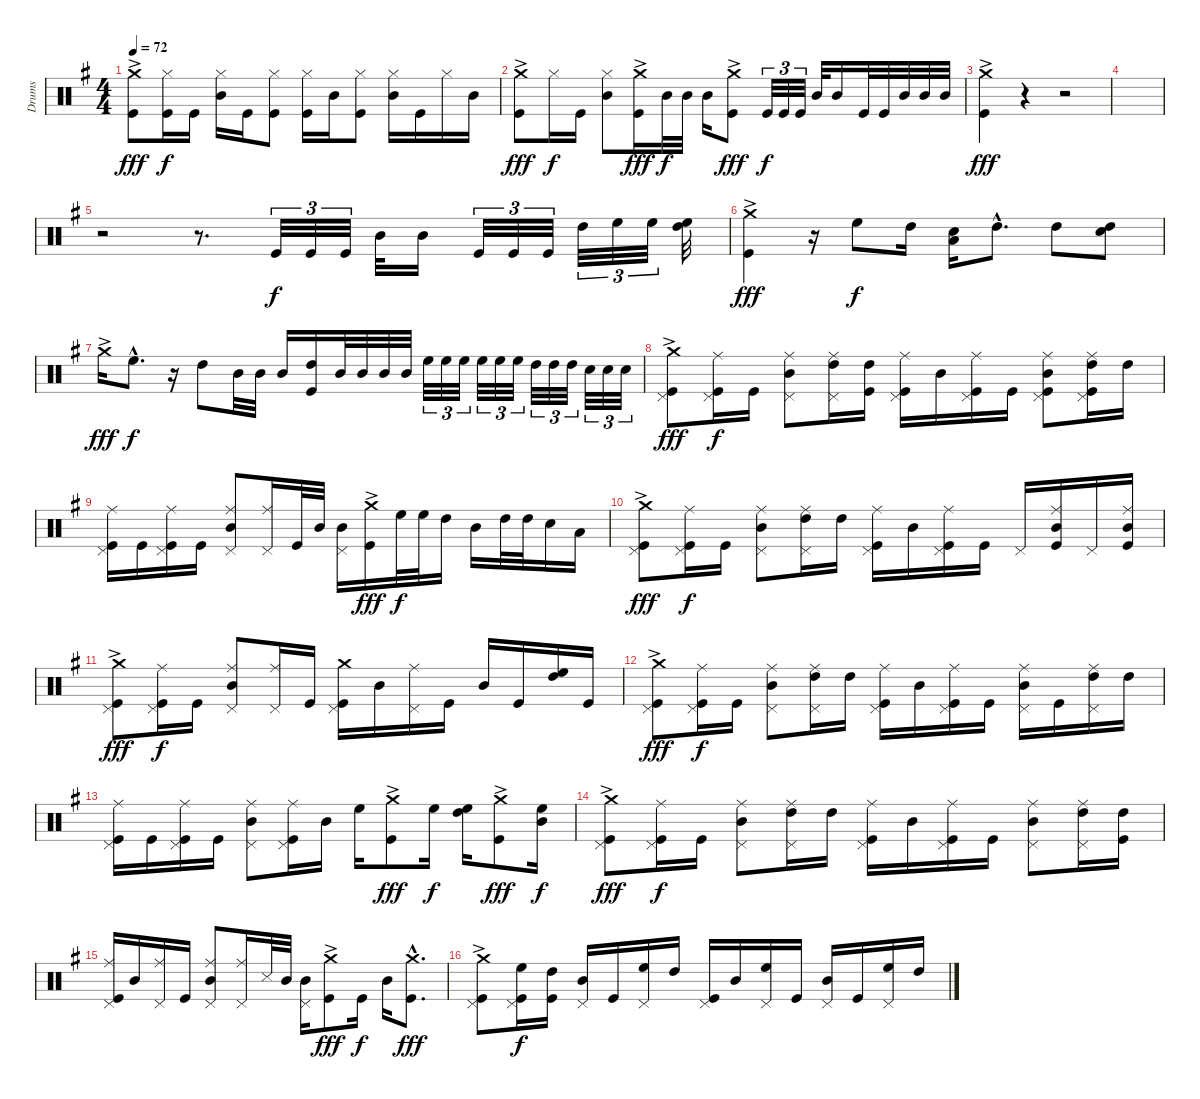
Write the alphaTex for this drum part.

\track ("Drums" "Drums") {instrument percussion}
\staff {score}
\articulation defaults
\ts (4 4)
\tempo 72
\clef neutral
\ks g
("Crash medium (hit)"{ac} "Kick (hit)").8{dy fff} ("Hi-Hat (closed)" "Kick (hit)").16{dy f} "Kick (hit)".16 ("Hi-Hat (closed)" "Mid Tom (hit)").16 "Kick (hit)".16 ("Hi-Hat (closed)" "Kick (hit)").8 ("Hi-Hat (closed)" "Kick (hit)").16 "Mid Tom (hit)".16 ("Hi-Hat (closed)" "Kick (hit)").8 ("Hi-Hat (closed)" "Mid Tom (hit)").16 "Kick (hit)".16 "Hi-Hat (closed)".16 "Mid Tom (hit)".16 |
("Crash medium (hit)"{ac} "Kick (hit)").8{dy fff} "Hi-Hat (closed)".16{dy f} "Kick (hit)".16 ("Hi-Hat (closed)" "Mid Tom (hit)").8 ("Crash medium (hit)"{ac} "Kick (hit)").16{dy fff} "Mid Tom (hit)".32{dy f} "Mid Tom (hit)".32 "Mid Tom (hit)".16 ("Crash medium (hit)"{ac} "Kick (hit)").8{dy fff} "Kick (hit)".32{tu (3 2) dy f} "Kick (hit)".32{tu (3 2)} "Kick (hit)".32{tu (3 2)} "Mid Tom (hit)".32 "Mid Tom (hit)".16 "Kick (hit)".32 "Kick (hit)".32 "Mid Tom (hit)".32 "Mid Tom (hit)".32 "Mid Tom (hit)".32 |
("Crash medium (hit)"{ac} "Kick (hit)").4{dy fff} r.4 r.2 |
|
r.2 r.8{d} "Kick (hit)".32{tu (3 2) dy f} "Kick (hit)".32{tu (3 2)} "Kick (hit)".32{tu (3 2)} "Mid Tom (hit)".32 "Mid Tom (hit)".16 "Kick (hit)".32{tu (3 2)} "Kick (hit)".32{tu (3 2)} "Kick (hit)".32{tu (3 2)} "High Tom (hit)".32{tu (3 2)} "High Floor Tom (hit)".32{tu (3 2)} "High Floor Tom (hit)".32{tu (3 2)} ("High Floor Tom (hit)" "High Tom (hit)").32 |
("Crash medium (hit)"{ac} "Kick (hit)").4{dy fff} r.16 "High Floor Tom (hit)".8{dy f} "High Tom (hit)".16 ("Low Tom (hit)" "Electric Snare (hit)").16 "High Tom (hit)"{hac}.8{d} "High Tom (hit)".8 ("High Tom (hit)" "Electric Snare (hit)").8 |
"Crash medium (hit)"{ac}.16{dy fff} "High Floor Tom (hit)"{hac}.8{d dy f} r.16 "High Tom (hit)".8 "Mid Tom (hit)".32 "Mid Tom (hit)".32 "Mid Tom (hit)".16 ("High Tom (hit)" "Kick (hit)").16 "Mid Tom (hit)".32 "Mid Tom (hit)".32 "Mid Tom (hit)".32 "Mid Tom (hit)".32 "High Floor Tom (hit)".32{tu (3 2)} "High Floor Tom (hit)".32{tu (3 2)} "High Floor Tom (hit)".32{tu (3 2)} "High Floor Tom (hit)".32{tu (3 2)} "High Floor Tom (hit)".32{tu (3 2)} "High Floor Tom (hit)".32{tu (3 2)} "High Tom (hit)".32{tu (3 2)} "High Tom (hit)".32{tu (3 2)} "High Tom (hit)".32{tu (3 2)} "Electric Snare (hit)".32{tu (3 2)} "Electric Snare (hit)".32{tu (3 2)} "Electric Snare (hit)".32{tu (3 2)} |
("Crash medium (hit)"{ac} "Kick (hit)" "Pedal Hi-Hat (hit)").8{dy fff} ("Ride (middle)" "Kick (hit)" "Pedal Hi-Hat (hit)").16{dy f} "Kick (hit)".16 ("Ride (middle)" "Mid Tom (hit)" "Pedal Hi-Hat (hit)").8 ("Ride (middle)" "High Tom (hit)" "Pedal Hi-Hat (hit)").16 ("High Tom (hit)" "Kick (hit)").16 ("Ride (middle)" "Kick (hit)" "Pedal Hi-Hat (hit)").16 "Mid Tom (hit)".16 ("Ride (middle)" "Kick (hit)" "Pedal Hi-Hat (hit)").16 "Kick (hit)".16 ("Ride (middle)" "Mid Tom (hit)" "Kick (hit)" "Pedal Hi-Hat (hit)").8 ("Ride (middle)" "High Tom (hit)" "Kick (hit)" "Pedal Hi-Hat (hit)").16 "High Tom (hit)".16 |
("Ride (middle)" "Kick (hit)" "Pedal Hi-Hat (hit)").16 "Kick (hit)".16 ("Ride (middle)" "Kick (hit)" "Pedal Hi-Hat (hit)").16 "Kick (hit)".16 ("Ride (middle)" "Mid Tom (hit)" "Pedal Hi-Hat (hit)").8 ("Ride (middle)" "Pedal Hi-Hat (hit)").16 "Kick (hit)".32 "Mid Tom (hit)".32 ("Mid Tom (hit)" "Pedal Hi-Hat (hit)").16 ("Crash medium (hit)"{ac} "Kick (hit)").16{dy fff} "High Floor Tom (hit)".32{dy f} "High Floor Tom (hit)".32 "High Tom (hit)".16 "Mid Tom (hit)".16 "High Tom (hit)".32 "High Tom (hit)".32 "Electric Snare (hit)".16 "Low Tom (hit)".16 |
("Crash medium (hit)"{ac} "Kick (hit)" "Pedal Hi-Hat (hit)").8{dy fff} ("Ride (middle)" "Kick (hit)" "Pedal Hi-Hat (hit)").16{dy f} "Kick (hit)".16 ("Ride (middle)" "Mid Tom (hit)" "Pedal Hi-Hat (hit)").8 ("Ride (middle)" "High Tom (hit)" "Pedal Hi-Hat (hit)").16 "High Tom (hit)".16 ("Ride (middle)" "Kick (hit)" "Pedal Hi-Hat (hit)").16 "Mid Tom (hit)".16 ("Ride (middle)" "Kick (hit)" "Pedal Hi-Hat (hit)").16 "Kick (hit)".16 "Pedal Hi-Hat (hit)".16 ("Ride (middle)" "Mid Tom (hit)" "Kick (hit)").16 "Pedal Hi-Hat (hit)".16 ("Ride (middle)" "Mid Tom (hit)" "Kick (hit)").16 |
("Crash medium (hit)"{ac} "Kick (hit)" "Pedal Hi-Hat (hit)").8{dy fff} ("Ride (middle)" "Kick (hit)" "Pedal Hi-Hat (hit)").16{dy f} "Kick (hit)".16 ("Ride (middle)" "Mid Tom (hit)" "Pedal Hi-Hat (hit)").8 ("Ride (middle)" "Pedal Hi-Hat (hit)").16 "Kick (hit)".16 ("Crash medium (hit)" "Kick (hit)" "Pedal Hi-Hat (hit)").16 "Mid Tom (hit)".16 ("Ride (middle)" "Pedal Hi-Hat (hit)").16 "Kick (hit)".16 "Mid Tom (hit)".16 "Kick (hit)".16 ("High Floor Tom (hit)" "High Tom (hit)").16 "Kick (hit)".16 |
("Crash medium (hit)"{ac} "Kick (hit)" "Pedal Hi-Hat (hit)").8{dy fff} ("Ride (middle)" "Kick (hit)" "Pedal Hi-Hat (hit)").16{dy f} "Kick (hit)".16 ("Ride (middle)" "Mid Tom (hit)" "Pedal Hi-Hat (hit)").8 ("Ride (middle)" "High Tom (hit)" "Pedal Hi-Hat (hit)").16 "High Tom (hit)".16 ("Ride (middle)" "Kick (hit)" "Pedal Hi-Hat (hit)").16 "Mid Tom (hit)".16 ("Ride (middle)" "Kick (hit)" "Pedal Hi-Hat (hit)").16 "Kick (hit)".16 ("Ride (middle)" "Mid Tom (hit)" "Pedal Hi-Hat (hit)").16 "Kick (hit)".16 ("Ride (middle)" "High Tom (hit)" "Pedal Hi-Hat (hit)").16 "High Tom (hit)".16 |
("Ride (middle)" "Kick (hit)" "Pedal Hi-Hat (hit)").16 "Kick (hit)".16 ("Ride (middle)" "Kick (hit)" "Pedal Hi-Hat (hit)").16 "Kick (hit)".16 ("Ride (middle)" "Mid Tom (hit)" "Pedal Hi-Hat (hit)").8 ("Ride (middle)" "Kick (hit)" "Pedal Hi-Hat (hit)").16 "Mid Tom (hit)".16 "High Floor Tom (hit)".16 ("Crash medium (hit)"{ac} "Kick (hit)").8{dy fff} "High Floor Tom (hit)".16{dy f} ("High Floor Tom (hit)" "High Tom (hit)").16 ("Crash medium (hit)"{ac} "Kick (hit)").8{dy fff} ("High Floor Tom (hit)" "Mid Tom (hit)").16{dy f} |
("Crash medium (hit)"{ac} "Kick (hit)" "Pedal Hi-Hat (hit)").8{dy fff} ("Ride (middle)" "Kick (hit)" "Pedal Hi-Hat (hit)").16{dy f} "Kick (hit)".16 ("Ride (middle)" "Mid Tom (hit)" "Pedal Hi-Hat (hit)").8 ("Ride (middle)" "High Tom (hit)" "Pedal Hi-Hat (hit)").16 "High Tom (hit)".16 ("Ride (middle)" "Kick (hit)" "Pedal Hi-Hat (hit)").16 "Mid Tom (hit)".16 ("Ride (middle)" "Kick (hit)" "Pedal Hi-Hat (hit)").16 "Kick (hit)".16 ("Ride (middle)" "Mid Tom (hit)" "Pedal Hi-Hat (hit)").8 ("Ride (middle)" "High Tom (hit)" "Pedal Hi-Hat (hit)").16 ("High Tom (hit)" "Kick (hit)").16 |
("Ride (middle)" "Kick (hit)" "Pedal Hi-Hat (hit)").16 "Mid Tom (hit)".16 ("Ride (middle)" "Pedal Hi-Hat (hit)").16 "Kick (hit)".16 ("Ride (middle)" "Mid Tom (hit)" "Pedal Hi-Hat (hit)").8 ("Ride (middle)" "Pedal Hi-Hat (hit)").16 "Snare (side stick) 3".32 "Mid Tom (hit)".32 ("Mid Tom (hit)" "Pedal Hi-Hat (hit)").16 ("Crash medium (hit)"{ac} "Kick (hit)").8{dy fff} "Kick (hit)".16{dy f} "Mid Tom (hit)".16 ("Crash medium (hit)"{hac} "Kick (hit)"{hac}).8{d dy fff} |
("Crash medium (hit)"{ac} "Kick (hit)" "Pedal Hi-Hat (hit)").8 ("High Floor Tom (hit)" "Kick (hit)" "Pedal Hi-Hat (hit)").16{dy f} ("High Tom (hit)" "Kick (hit)").16 ("Mid Tom (hit)" "Pedal Hi-Hat (hit)").16 "Kick (hit)".16 ("High Floor Tom (hit)" "Pedal Hi-Hat (hit)").16 "High Tom (hit)".16 ("Kick (hit)" "Pedal Hi-Hat (hit)").16 "Mid Tom (hit)".16 ("High Floor Tom (hit)" "Pedal Hi-Hat (hit)").16 "Kick (hit)".16 ("Mid Tom (hit)" "Pedal Hi-Hat (hit)").16 "Kick (hit)".16 ("High Floor Tom (hit)" "Pedal Hi-Hat (hit)").16 "High Tom (hit)".16
